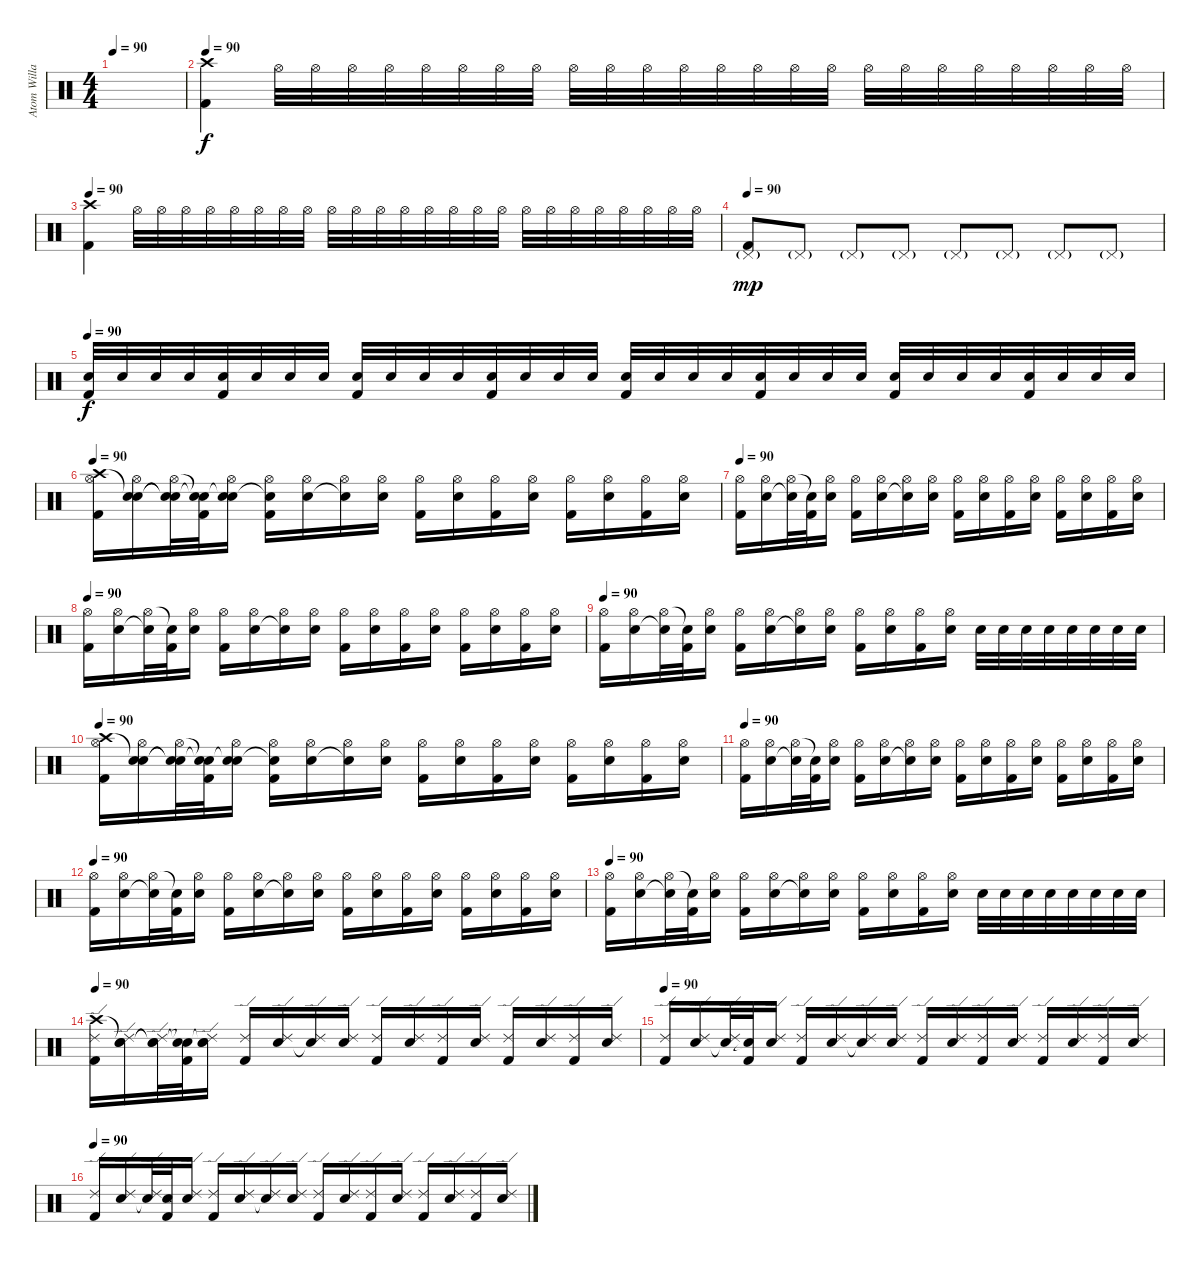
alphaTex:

\track ("Atom Willard (Drums)" "Atom Willa") {instrument percussion}
\staff {score}
\articulation defaults
\ts (4 4)
\tempo 90
\clef neutral
\ks c
|
\tempo 90
("Crash high (hit)" "Kick (hit) 2").4 "Hi-Hat (open)".32{volume 0} "Hi-Hat (open)".32 "Hi-Hat (open)".32 "Hi-Hat (open)".32{volume 2} "Hi-Hat (open)".32 "Hi-Hat (open)".32 "Hi-Hat (open)".32 "Hi-Hat (open)".32{volume 5} "Hi-Hat (open)".32 "Hi-Hat (open)".32 "Hi-Hat (open)".32 "Hi-Hat (open)".32{volume 8} "Hi-Hat (open)".32 "Hi-Hat (open)".32 "Hi-Hat (open)".32{volume 10} "Hi-Hat (open)".32 "Hi-Hat (open)".32 "Hi-Hat (open)".32 "Hi-Hat (open)".32 "Hi-Hat (open)".32{volume 13} "Hi-Hat (open)".32 "Hi-Hat (open)".32 "Hi-Hat (open)".32 "Hi-Hat (open)".32 |
\tempo 90
("Crash high (hit)" "Kick (hit) 2").4 "Hi-Hat (open)".32{volume 0} "Hi-Hat (open)".32 "Hi-Hat (open)".32 "Hi-Hat (open)".32{volume 2} "Hi-Hat (open)".32 "Hi-Hat (open)".32 "Hi-Hat (open)".32 "Hi-Hat (open)".32{volume 5} "Hi-Hat (open)".32 "Hi-Hat (open)".32 "Hi-Hat (open)".32 "Hi-Hat (open)".32{volume 8} "Hi-Hat (open)".32 "Hi-Hat (open)".32 "Hi-Hat (open)".32{volume 10} "Hi-Hat (open)".32 "Hi-Hat (open)".32 "Hi-Hat (open)".32 "Hi-Hat (open)".32 "Hi-Hat (open)".32{volume 13} "Hi-Hat (open)".32 "Hi-Hat (open)".32 "Hi-Hat (open)".32 "Hi-Hat (open)".32 |
\tempo 90
("Pedal Hi-Hat (hit)"{g} "Kick (hit) 2").8{dy mp} "Pedal Hi-Hat (hit)"{g}.8 "Pedal Hi-Hat (hit)"{g}.8 "Pedal Hi-Hat (hit)"{g}.8 "Pedal Hi-Hat (hit)"{g}.8 "Pedal Hi-Hat (hit)"{g}.8 "Pedal Hi-Hat (hit)"{g}.8 "Pedal Hi-Hat (hit)"{g}.8 |
\tempo 90
("Electric Snare (hit)" "Kick (hit) 2").32{dy f} "Electric Snare (hit)".32 "Electric Snare (hit)".32 "Electric Snare (hit)".32 ("Electric Snare (hit)" "Kick (hit) 2").32 "Electric Snare (hit)".32 "Electric Snare (hit)".32 "Electric Snare (hit)".32 ("Electric Snare (hit)" "Kick (hit) 2").32 "Electric Snare (hit)".32 "Electric Snare (hit)".32 "Electric Snare (hit)".32 ("Electric Snare (hit)" "Kick (hit) 2").32 "Electric Snare (hit)".32 "Electric Snare (hit)".32 "Electric Snare (hit)".32 ("Electric Snare (hit)" "Kick (hit) 2").32 "Electric Snare (hit)".32 "Electric Snare (hit)".32 "Electric Snare (hit)".32 ("Electric Snare (hit)" "Kick (hit) 2").32 "Electric Snare (hit)".32 "Electric Snare (hit)".32 "Electric Snare (hit)".32 ("Electric Snare (hit)" "Kick (hit) 2").32 "Electric Snare (hit)".32 "Electric Snare (hit)".32 "Electric Snare (hit)".32 ("Electric Snare (hit)" "Kick (hit) 2").32 "Electric Snare (hit)".32 "Electric Snare (hit)".32 "Electric Snare (hit)".32 |
\tempo 90
("Crash high (hit)" "Hi-Hat (open)" "Kick (hit) 2").16 ("Snare (hit)"{t} "Hi-Hat (open)" "Electric Snare (hit)").16 ("Snare (hit)"{t} "Hi-Hat (open)" "Snare (hit)"{t}).32 ("Snare (hit)"{t} "Snare (hit)"{t} "Kick (hit) 2").32 ("Snare (hit)"{t} "Hi-Hat (open)" "Electric Snare (hit)").16 ("Snare (hit)"{t} "Hi-Hat (open)" "Kick (hit) 2").16 ("Hi-Hat (open)" "Electric Snare (hit)").16 ("Hi-Hat (open)" "Snare (hit)"{t}).16 ("Hi-Hat (open)" "Electric Snare (hit)").16 ("Hi-Hat (open)" "Kick (hit) 2").16 ("Hi-Hat (open)" "Electric Snare (hit)").16 ("Hi-Hat (open)" "Kick (hit) 2").16 ("Hi-Hat (open)" "Electric Snare (hit)").16 ("Hi-Hat (open)" "Kick (hit) 2").16 ("Hi-Hat (open)" "Electric Snare (hit)").16 ("Hi-Hat (open)" "Kick (hit) 2").16 ("Hi-Hat (open)" "Electric Snare (hit)").16 |
\tempo 90
("Hi-Hat (open)" "Kick (hit) 2").16 ("Hi-Hat (open)" "Electric Snare (hit)").16 ("Hi-Hat (open)" "Snare (hit)"{t}).32 ("Snare (hit)"{t} "Kick (hit) 2").32 ("Hi-Hat (open)" "Electric Snare (hit)").16 ("Hi-Hat (open)" "Kick (hit) 2").16 ("Hi-Hat (open)" "Electric Snare (hit)").16 ("Hi-Hat (open)" "Snare (hit)"{t}).16 ("Hi-Hat (open)" "Electric Snare (hit)").16 ("Hi-Hat (open)" "Kick (hit) 2").16 ("Hi-Hat (open)" "Electric Snare (hit)").16 ("Hi-Hat (open)" "Kick (hit) 2").16 ("Hi-Hat (open)" "Electric Snare (hit)").16 ("Hi-Hat (open)" "Kick (hit) 2").16 ("Hi-Hat (open)" "Electric Snare (hit)").16 ("Hi-Hat (open)" "Kick (hit) 2").16 ("Hi-Hat (open)" "Electric Snare (hit)").16 |
\tempo 90
("Hi-Hat (open)" "Kick (hit) 2").16 ("Hi-Hat (open)" "Electric Snare (hit)").16 ("Hi-Hat (open)" "Snare (hit)"{t}).32 ("Snare (hit)"{t} "Kick (hit) 2").32 ("Hi-Hat (open)" "Electric Snare (hit)").16 ("Hi-Hat (open)" "Kick (hit) 2").16 ("Hi-Hat (open)" "Electric Snare (hit)").16 ("Hi-Hat (open)" "Snare (hit)"{t}).16 ("Hi-Hat (open)" "Electric Snare (hit)").16 ("Hi-Hat (open)" "Kick (hit) 2").16 ("Hi-Hat (open)" "Electric Snare (hit)").16 ("Hi-Hat (open)" "Kick (hit) 2").16 ("Hi-Hat (open)" "Electric Snare (hit)").16 ("Hi-Hat (open)" "Kick (hit) 2").16 ("Hi-Hat (open)" "Electric Snare (hit)").16 ("Hi-Hat (open)" "Kick (hit) 2").16 ("Hi-Hat (open)" "Electric Snare (hit)").16 |
\tempo 90
("Hi-Hat (open)" "Kick (hit) 2").16 ("Hi-Hat (open)" "Electric Snare (hit)").16 ("Hi-Hat (open)" "Snare (hit)"{t}).32 ("Snare (hit)"{t} "Kick (hit) 2").32 ("Hi-Hat (open)" "Electric Snare (hit)").16 ("Hi-Hat (open)" "Kick (hit) 2").16 ("Hi-Hat (open)" "Electric Snare (hit)").16 ("Hi-Hat (open)" "Snare (hit)"{t}).16 ("Hi-Hat (open)" "Electric Snare (hit)").16 ("Hi-Hat (open)" "Kick (hit) 2").16 ("Hi-Hat (open)" "Electric Snare (hit)").16 ("Hi-Hat (open)" "Kick (hit) 2").16 ("Hi-Hat (open)" "Electric Snare (hit)").16 "Electric Snare (hit)".32 "Electric Snare (hit)".32 "Electric Snare (hit)".32 "Electric Snare (hit)".32 "Electric Snare (hit)".32 "Electric Snare (hit)".32 "Electric Snare (hit)".32 "Electric Snare (hit)".32 |
\tempo 90
("Crash high (hit)" "Hi-Hat (open)" "Kick (hit) 2").16 ("Snare (hit)"{t} "Hi-Hat (open)" "Electric Snare (hit)").16 ("Snare (hit)"{t} "Hi-Hat (open)" "Snare (hit)"{t}).32 ("Snare (hit)"{t} "Snare (hit)"{t} "Kick (hit) 2").32 ("Snare (hit)"{t} "Hi-Hat (open)" "Electric Snare (hit)").16 ("Snare (hit)"{t} "Hi-Hat (open)" "Kick (hit) 2").16 ("Hi-Hat (open)" "Electric Snare (hit)").16 ("Hi-Hat (open)" "Snare (hit)"{t}).16 ("Hi-Hat (open)" "Electric Snare (hit)").16 ("Hi-Hat (open)" "Kick (hit) 2").16 ("Hi-Hat (open)" "Electric Snare (hit)").16 ("Hi-Hat (open)" "Kick (hit) 2").16 ("Hi-Hat (open)" "Electric Snare (hit)").16 ("Hi-Hat (open)" "Kick (hit) 2").16 ("Hi-Hat (open)" "Electric Snare (hit)").16 ("Hi-Hat (open)" "Kick (hit) 2").16 ("Hi-Hat (open)" "Electric Snare (hit)").16 |
\tempo 90
("Hi-Hat (open)" "Kick (hit) 2").16 ("Hi-Hat (open)" "Electric Snare (hit)").16 ("Hi-Hat (open)" "Snare (hit)"{t}).32 ("Snare (hit)"{t} "Kick (hit) 2").32 ("Hi-Hat (open)" "Electric Snare (hit)").16 ("Hi-Hat (open)" "Kick (hit) 2").16 ("Hi-Hat (open)" "Electric Snare (hit)").16 ("Hi-Hat (open)" "Snare (hit)"{t}).16 ("Hi-Hat (open)" "Electric Snare (hit)").16 ("Hi-Hat (open)" "Kick (hit) 2").16 ("Hi-Hat (open)" "Electric Snare (hit)").16 ("Hi-Hat (open)" "Kick (hit) 2").16 ("Hi-Hat (open)" "Electric Snare (hit)").16 ("Hi-Hat (open)" "Kick (hit) 2").16 ("Hi-Hat (open)" "Electric Snare (hit)").16 ("Hi-Hat (open)" "Kick (hit) 2").16 ("Hi-Hat (open)" "Electric Snare (hit)").16 |
\tempo 90
("Hi-Hat (open)" "Kick (hit) 2").16 ("Hi-Hat (open)" "Electric Snare (hit)").16 ("Hi-Hat (open)" "Snare (hit)"{t}).32 ("Snare (hit)"{t} "Kick (hit) 2").32 ("Hi-Hat (open)" "Electric Snare (hit)").16 ("Hi-Hat (open)" "Kick (hit) 2").16 ("Hi-Hat (open)" "Electric Snare (hit)").16 ("Hi-Hat (open)" "Snare (hit)"{t}).16 ("Hi-Hat (open)" "Electric Snare (hit)").16 ("Hi-Hat (open)" "Kick (hit) 2").16 ("Hi-Hat (open)" "Electric Snare (hit)").16 ("Hi-Hat (open)" "Kick (hit) 2").16 ("Hi-Hat (open)" "Electric Snare (hit)").16 ("Hi-Hat (open)" "Kick (hit) 2").16 ("Hi-Hat (open)" "Electric Snare (hit)").16 ("Hi-Hat (open)" "Kick (hit) 2").16 ("Hi-Hat (open)" "Electric Snare (hit)").16 |
\tempo 90
("Hi-Hat (open)" "Kick (hit) 2").16 ("Hi-Hat (open)" "Electric Snare (hit)").16 ("Hi-Hat (open)" "Snare (hit)"{t}).32 ("Snare (hit)"{t} "Kick (hit) 2").32 ("Hi-Hat (open)" "Electric Snare (hit)").16 ("Hi-Hat (open)" "Kick (hit) 2").16 ("Hi-Hat (open)" "Electric Snare (hit)").16 ("Hi-Hat (open)" "Snare (hit)"{t}).16 ("Hi-Hat (open)" "Electric Snare (hit)").16 ("Hi-Hat (open)" "Kick (hit) 2").16 ("Hi-Hat (open)" "Electric Snare (hit)").16 ("Hi-Hat (open)" "Kick (hit) 2").16 ("Hi-Hat (open)" "Electric Snare (hit)").16 "Electric Snare (hit)".32 "Electric Snare (hit)".32 "Electric Snare (hit)".32 "Electric Snare (hit)".32 "Electric Snare (hit)".32 "Electric Snare (hit)".32 "Electric Snare (hit)".32 "Electric Snare (hit)".32 |
\tempo 90
("Crash high (hit)" "Ride (edge) 2" "Kick (hit) 2").16 ("Snare (hit)"{t} "Ride (edge) 2" "Electric Snare (hit)").16 ("Snare (hit)"{t} "Ride (edge) 2" "Snare (hit)"{t}).32 ("Snare (hit)"{t} "Snare (hit)"{t} "Kick (hit) 2").32 ("Snare (hit)"{t} "Ride (edge) 2" "Electric Snare (hit)").16 ("Ride (edge) 2" "Kick (hit) 2").16 ("Ride (edge) 2" "Electric Snare (hit)").16 ("Ride (edge) 2" "Snare (hit)"{t}).16 ("Ride (edge) 2" "Electric Snare (hit)").16 ("Ride (edge) 2" "Kick (hit) 2").16 ("Ride (edge) 2" "Electric Snare (hit)").16 ("Ride (edge) 2" "Kick (hit) 2").16 ("Ride (edge) 2" "Electric Snare (hit)").16 ("Ride (edge) 2" "Kick (hit) 2").16 ("Ride (edge) 2" "Electric Snare (hit)").16 ("Ride (edge) 2" "Kick (hit) 2").16 ("Ride (edge) 2" "Electric Snare (hit)").16 |
\tempo 90
("Ride (edge) 2" "Kick (hit) 2").16 ("Ride (edge) 2" "Electric Snare (hit)").16 ("Ride (edge) 2" "Snare (hit)"{t}).32 ("Snare (hit)"{t} "Kick (hit) 2").32 ("Ride (edge) 2" "Electric Snare (hit)").16 ("Ride (edge) 2" "Kick (hit) 2").16 ("Ride (edge) 2" "Electric Snare (hit)").16 ("Ride (edge) 2" "Snare (hit)"{t}).16 ("Ride (edge) 2" "Electric Snare (hit)").16 ("Ride (edge) 2" "Kick (hit) 2").16 ("Ride (edge) 2" "Electric Snare (hit)").16 ("Ride (edge) 2" "Kick (hit) 2").16 ("Ride (edge) 2" "Electric Snare (hit)").16 ("Ride (edge) 2" "Kick (hit) 2").16 ("Ride (edge) 2" "Electric Snare (hit)").16 ("Ride (edge) 2" "Kick (hit) 2").16 ("Ride (edge) 2" "Electric Snare (hit)").16 |
\tempo 90
("Ride (edge) 2" "Kick (hit) 2").16 ("Ride (edge) 2" "Electric Snare (hit)").16 ("Ride (edge) 2" "Snare (hit)"{t}).32 ("Snare (hit)"{t} "Kick (hit) 2").32 ("Ride (edge) 2" "Electric Snare (hit)").16 ("Ride (edge) 2" "Kick (hit) 2").16 ("Ride (edge) 2" "Electric Snare (hit)").16 ("Ride (edge) 2" "Snare (hit)"{t}).16 ("Ride (edge) 2" "Electric Snare (hit)").16 ("Ride (edge) 2" "Kick (hit) 2").16 ("Ride (edge) 2" "Electric Snare (hit)").16 ("Ride (edge) 2" "Kick (hit) 2").16 ("Ride (edge) 2" "Electric Snare (hit)").16 ("Ride (edge) 2" "Kick (hit) 2").16 ("Ride (edge) 2" "Electric Snare (hit)").16 ("Ride (edge) 2" "Kick (hit) 2").16 ("Ride (edge) 2" "Electric Snare (hit)").16
